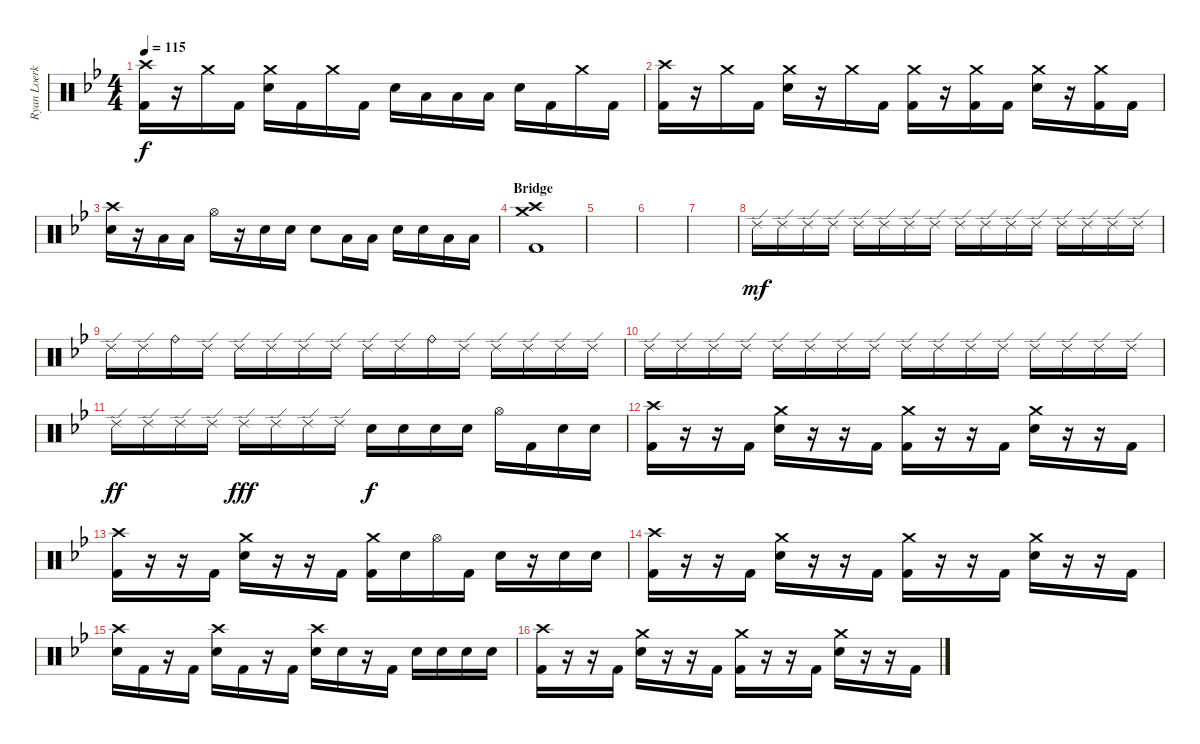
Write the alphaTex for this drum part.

\track ("Ryan Loerke" "Ryan Loerk") {instrument percussion}
\staff {score}
\articulation defaults
\ts (4 4)
\tempo 115
\clef neutral
\ks gminor
("Crash high (hit)" "Kick (hit) 2").16{dy f} r.16 "Crash medium (hit)".16 "Kick (hit) 2".16 ("Crash medium (hit)" "Snare (hit) 2").16 "Kick (hit) 2".16 "Crash medium (hit)".16 "Kick (hit) 2".16 "Snare (hit) 2".16 "Low Tom (hit)".16 "Low Tom (hit)".16 "Low Tom (hit)".16 "Snare (hit) 2".16 "Kick (hit) 2".16 "Crash medium (hit)".16 "Kick (hit) 2".16 |
("Crash high (hit)" "Kick (hit) 2").16 r.16 "Crash medium (hit)".16 "Kick (hit) 2".16 ("Crash medium (hit)" "Snare (hit) 2").16 r.16 "Crash medium (hit)".16 "Kick (hit) 2".16 ("Crash medium (hit)" "Kick (hit) 2").16 r.16 ("Crash medium (hit)" "Kick (hit) 2").16 "Kick (hit) 2".16 ("Crash medium (hit)" "Snare (hit) 2").16 r.16 ("Crash medium (hit)" "Kick (hit) 2").16 "Kick (hit) 2".16 |
("Crash high (hit)" "Snare (hit) 2").16 r.16 "Low Tom (hit)".16 "Low Tom (hit)".16 "Hi-Hat (open)".16 r.16 "Snare (hit) 2".16 "Snare (hit) 2".16 "Snare (hit) 2".8 "Low Tom (hit)".16 "Low Tom (hit)".16 "Snare (hit) 2".16 "Snare (hit) 2".16 "Low Tom (hit)".16 "Low Tom (hit)".16 |
\section ("" "Bridge")
("Crash medium (hit)" "Crash high (hit)" "Kick (hit) 2").1 |
|
|
|
"Ride (edge) 2".16{dy mf} "Ride (edge) 2".16 "Ride (edge) 2".16 "Ride (edge) 2".16 "Ride (edge) 2".16 "Ride (edge) 2".16 "Ride (edge) 2".16 "Ride (edge) 2".16 "Ride (edge) 2".16 "Ride (edge) 2".16 "Ride (edge) 2".16 "Ride (edge) 2".16 "Ride (edge) 2".16 "Ride (edge) 2".16 "Ride (edge) 2".16 "Ride (edge) 2".16 |
"Ride (edge) 2".16 "Ride (edge) 2".16 "Ride (bell)".16 "Ride (edge) 2".16 "Ride (edge) 2".16 "Ride (edge) 2".16 "Ride (edge) 2".16 "Ride (edge) 2".16 "Ride (edge) 2".16 "Ride (edge) 2".16 "Ride (bell)".16 "Ride (edge) 2".16 "Ride (edge) 2".16 "Ride (edge) 2".16 "Ride (edge) 2".16 "Ride (edge) 2".16 |
"Ride (edge) 2".16 "Ride (edge) 2".16 "Ride (edge) 2".16 "Ride (edge) 2".16 "Ride (edge) 2".16 "Ride (edge) 2".16 "Ride (edge) 2".16 "Ride (edge) 2".16 "Ride (edge) 2".16 "Ride (edge) 2".16 "Ride (edge) 2".16 "Ride (edge) 2".16 "Ride (edge) 2".16 "Ride (edge) 2".16 "Ride (edge) 2".16 "Ride (edge) 2".16 |
"Ride (edge) 2".16{dy ff} "Ride (edge) 2".16 "Ride (edge) 2".16 "Ride (edge) 2".16 "Ride (edge) 2".16{dy fff} "Ride (edge) 2".16 "Ride (edge) 2".16 "Ride (edge) 2".16 "Snare (hit) 2".16{dy f} "Snare (hit) 2".16 "Snare (hit) 2".16 "Snare (hit) 2".16 "Hi-Hat (open)".16 "Kick (hit) 2".16 "Snare (hit) 2".16 "Snare (hit) 2".16 |
("Crash high (hit)" "Kick (hit) 2").16 r.16 r.16 "Kick (hit) 2".16 ("Crash medium (hit)" "Snare (hit) 2").16 r.16 r.16 "Kick (hit) 2".16 ("Crash medium (hit)" "Kick (hit) 2").16 r.16 r.16 "Kick (hit) 2".16 ("Crash medium (hit)" "Snare (hit) 2").16 r.16 r.16 "Kick (hit) 2".16 |
("Crash high (hit)" "Kick (hit) 2").16 r.16 r.16 "Kick (hit) 2".16 ("Crash medium (hit)" "Snare (hit) 2").16 r.16 r.16 "Kick (hit) 2".16 ("Crash medium (hit)" "Kick (hit) 2").16 "Snare (hit) 2".16 "Hi-Hat (open)".16 "Kick (hit) 2".16 "Snare (hit) 2".16 r.16 "Snare (hit) 2".16 "Snare (hit) 2".16 |
("Crash high (hit)" "Kick (hit) 2").16 r.16 r.16 "Kick (hit) 2".16 ("Crash medium (hit)" "Snare (hit) 2").16 r.16 r.16 "Kick (hit) 2".16 ("Crash medium (hit)" "Kick (hit) 2").16 r.16 r.16 "Kick (hit) 2".16 ("Crash medium (hit)" "Snare (hit) 2").16 r.16 r.16 "Kick (hit) 2".16 |
("Crash high (hit)" "Snare (hit) 2").16 "Kick (hit) 2".16 r.16 "Kick (hit) 2".16 ("Crash high (hit)" "Snare (hit) 2").16 "Kick (hit) 2".16 r.16 "Kick (hit) 2".16 ("Crash high (hit)" "Snare (hit) 2").16 "Snare (hit) 2".16 r.16 "Kick (hit) 2".16 "Snare (hit) 2".16 "Snare (hit) 2".16 "Snare (hit) 2".16 "Snare (hit) 2".16 |
("Crash high (hit)" "Kick (hit) 2").16 r.16 r.16 "Kick (hit) 2".16 ("Crash medium (hit)" "Snare (hit) 2").16 r.16 r.16 "Kick (hit) 2".16 ("Crash medium (hit)" "Kick (hit) 2").16 r.16 r.16 "Kick (hit) 2".16 ("Crash medium (hit)" "Snare (hit) 2").16 r.16 r.16 "Kick (hit) 2".16
